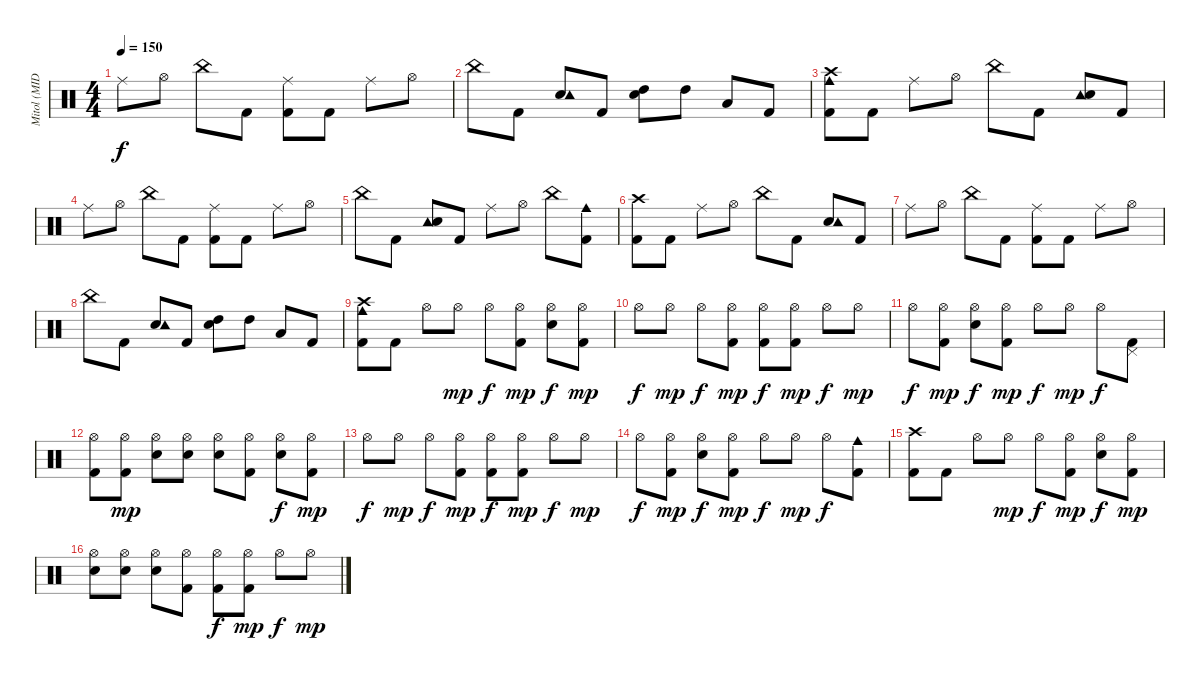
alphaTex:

\track ("Mitol (MIDI)" "Mitol (MID") {instrument percussion}
\staff {score}
\articulation defaults
\ts (4 4)
\tempo 150
\clef neutral
\ks c "Ride (middle)".8{dy f} "Hi-Hat (open)".8 "China (hit)".8 "Kick (hit) 2".8
("Ride (middle)" "Kick (hit) 2").8 "Kick (hit) 2".8 "Ride (middle)".8 "Hi-Hat (open)".8 |
"China (hit)".8 "Kick (hit) 2".8 ("Electric Snare (hit)" "Tambourine (hit)").8 "Kick (hit) 2".8 ("High Tom (hit)" "Electric Snare (hit)").8 "High Tom (hit)".8 "Low Tom (hit)".8 "Kick (hit) 2".8 |
("Cowbell medium (hit)" "Kick (hit) 2" "Crash high (hit)").8 "Kick (hit) 2".8 "Ride (middle)".8 "Hi-Hat (open)".8 "China (hit)".8 "Kick (hit) 2".8 ("Tambourine (hit)" "Electric Snare (hit)").8 "Kick (hit) 2".8 |
"Ride (middle)".8 "Hi-Hat (open)".8 "China (hit)".8 "Kick (hit) 2".8 ("Ride (middle)" "Kick (hit) 2").8 "Kick (hit) 2".8 "Ride (middle)".8 "Hi-Hat (open)".8 |
"China (hit)".8 "Kick (hit) 2".8 ("Tambourine (hit)" "Electric Snare (hit)").8 "Kick (hit) 2".8 "Ride (middle)".8 "Hi-Hat (open)".8 "China (hit)".8 ("Kick (hit) 2" "Cowbell medium (hit)").8 |
("Crash high (hit)" "Kick (hit) 2").8 "Kick (hit) 2".8 "Ride (middle)".8 "Hi-Hat (open)".8 "China (hit)".8 "Kick (hit) 2".8 ("Electric Snare (hit)" "Tambourine (hit)").8 "Kick (hit) 2".8 |
"Ride (middle)".8 "Hi-Hat (open)".8 "China (hit)".8 "Kick (hit) 2".8 ("Kick (hit) 2" "Ride (middle)").8 "Kick (hit) 2".8 "Ride (middle)".8 "Hi-Hat (open)".8 |
"China (hit)".8 "Kick (hit) 2".8 ("Electric Snare (hit)" "Tambourine (hit)").8 "Kick (hit) 2".8 ("High Tom (hit)" "Electric Snare (hit)").8 "High Tom (hit)".8 "Low Tom (hit)".8 "Kick (hit) 2".8 |
("Cowbell medium (hit)" "Crash high (hit)" "Kick (hit) 2").8 "Kick (hit) 2".8 "Hi-Hat (open)".8 "Hi-Hat (open)".8{dy mp} "Hi-Hat (open)".8{dy f} ("Hi-Hat (open)" "Kick (hit) 2").8{dy mp} ("Hi-Hat (open)" "Electric Snare (hit)").8{dy f} ("Kick (hit) 2" "Hi-Hat (open)").8{dy mp} |
"Hi-Hat (open)".8{dy f} "Hi-Hat (open)".8{dy mp} "Hi-Hat (open)".8{dy f} ("Kick (hit) 2" "Hi-Hat (open)").8{dy mp} ("Kick (hit) 2" "Hi-Hat (open)").8{dy f} ("Hi-Hat (open)" "Kick (hit) 2").8{dy mp} "Hi-Hat (open)".8{dy f} "Hi-Hat (open)".8{dy mp} |
"Hi-Hat (open)".8{dy f} ("Kick (hit) 2" "Hi-Hat (open)").8{dy mp} ("Hi-Hat (open)" "Electric Snare (hit)").8{dy f} ("Kick (hit) 2" "Hi-Hat (open)").8{dy mp} "Hi-Hat (open)".8{dy f} "Hi-Hat (open)".8{dy mp} "Hi-Hat (open)".8{dy f} ("Kick (hit) 2" "Pedal Hi-Hat (hit)").8 |
("Kick (hit) 2" "Hi-Hat (open)").8 ("Kick (hit) 2" "Hi-Hat (open)").8{dy mp} ("Hi-Hat (open)" "Electric Snare (hit)").8 ("Hi-Hat (open)" "Electric Snare (hit)").8 ("Hi-Hat (open)" "Electric Snare (hit)").8 ("Hi-Hat (open)" "Kick (hit) 2").8 ("Hi-Hat (open)" "Electric Snare (hit)").8{dy f} ("Kick (hit) 2" "Hi-Hat (open)").8{dy mp} |
"Hi-Hat (open)".8{dy f} "Hi-Hat (open)".8{dy mp} "Hi-Hat (open)".8{dy f} ("Hi-Hat (open)" "Kick (hit) 2").8{dy mp} ("Hi-Hat (open)" "Kick (hit) 2").8{dy f} ("Hi-Hat (open)" "Kick (hit) 2").8{dy mp} "Hi-Hat (open)".8{dy f} "Hi-Hat (open)".8{dy mp} |
"Hi-Hat (open)".8{dy f} ("Kick (hit) 2" "Hi-Hat (open)").8{dy mp} ("Electric Snare (hit)" "Hi-Hat (open)").8{dy f} ("Hi-Hat (open)" "Kick (hit) 2").8{dy mp} "Hi-Hat (open)".8{dy f} "Hi-Hat (open)".8{dy mp} "Hi-Hat (open)".8{dy f} ("Cowbell medium (hit)" "Kick (hit) 2").8 |
("Kick (hit) 2" "Crash high (hit)").8 "Kick (hit) 2".8 "Hi-Hat (open)".8 "Hi-Hat (open)".8{dy mp} "Hi-Hat (open)".8{dy f} ("Kick (hit) 2" "Hi-Hat (open)").8{dy mp} ("Hi-Hat (open)" "Electric Snare (hit)").8{dy f} ("Hi-Hat (open)" "Kick (hit) 2").8{dy mp} |
("Hi-Hat (open)" "Electric Snare (hit)").8 ("Electric Snare (hit)" "Hi-Hat (open)").8 ("Hi-Hat (open)" "Electric Snare (hit)").8 ("Hi-Hat (open)" "Kick (hit) 2").8 ("Hi-Hat (open)" "Kick (hit) 2").8{dy f} ("Hi-Hat (open)" "Kick (hit) 2").8{dy mp} "Hi-Hat (open)".8{dy f} "Hi-Hat (open)".8{dy mp}
